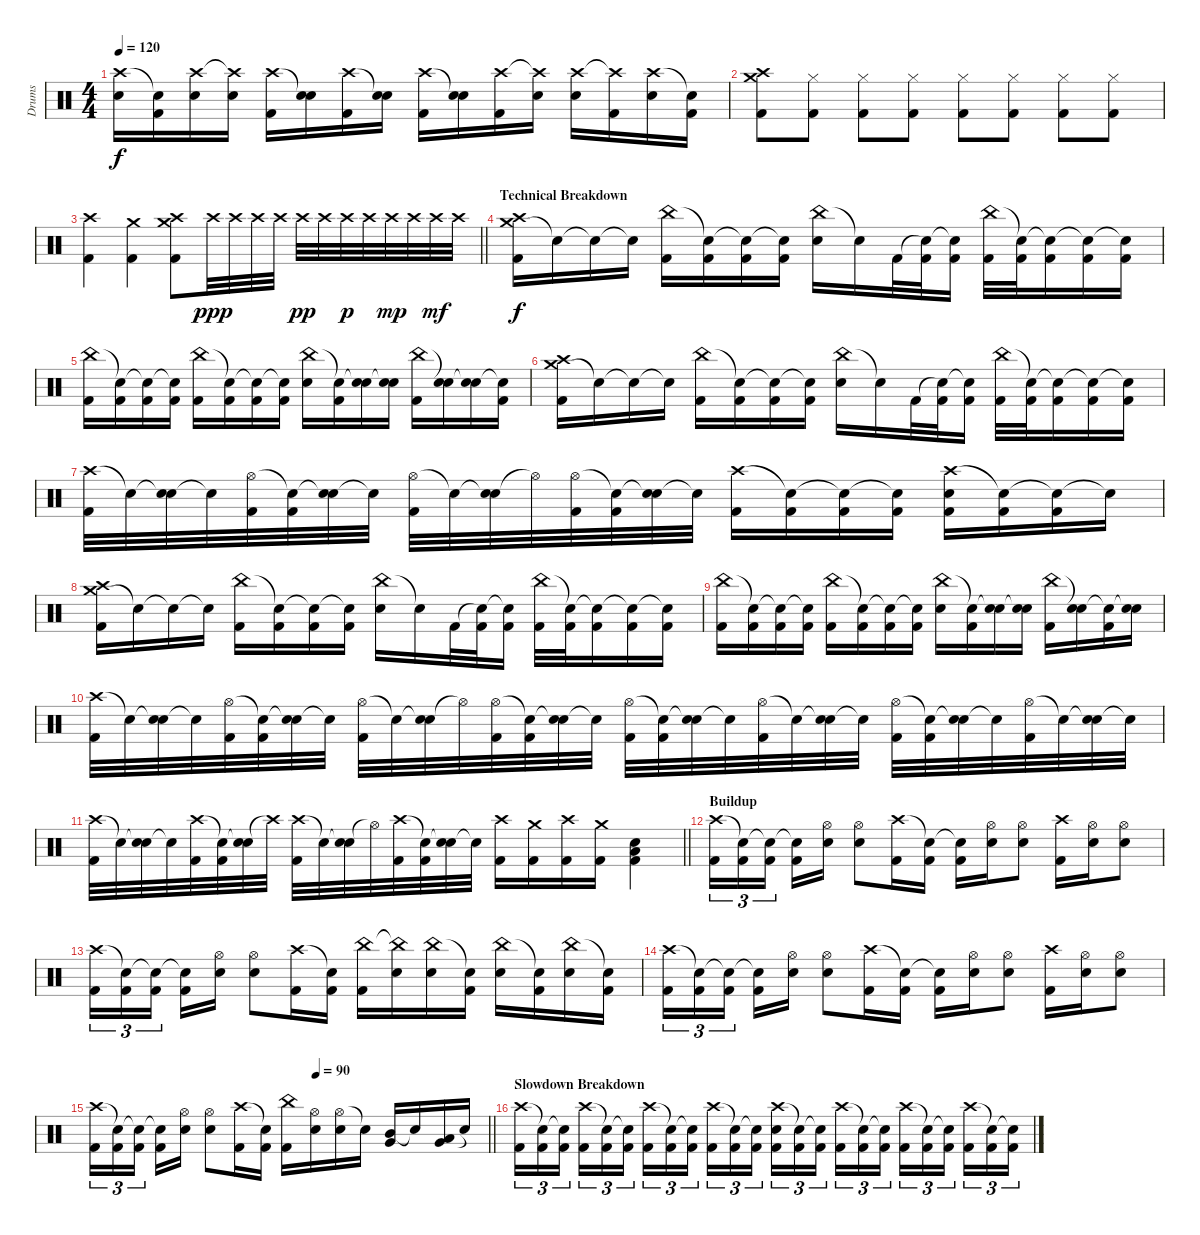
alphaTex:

\track ("Drums" "Drums") {instrument percussion}
\staff {score}
\articulation defaults
\ts (4 4)
\tempo 120
\clef neutral
\ks c
("Crash high (hit)" "Electric Snare (hit)").16{dy f} ("Snare (hit)"{t} "Kick (hit) 2").16 ("Crash high (hit)" "Electric Snare (hit)").16 ("Crash high (hit)"{t} "Electric Snare (hit)").16 ("Crash high (hit)" "Kick (hit) 2").16 ("Snare (hit)"{t} "Electric Snare (hit)").16 ("Crash high (hit)" "Kick (hit) 2").16 ("Snare (hit)"{t} "Electric Snare (hit)").16 ("Crash high (hit)" "Kick (hit) 2").16 ("Snare (hit)"{t} "Electric Snare (hit)").16 ("Crash high (hit)" "Kick (hit) 2").16 ("Crash high (hit)"{t} "Electric Snare (hit)").16 ("Crash high (hit)" "Electric Snare (hit)").16 ("Crash high (hit)"{t} "Kick (hit) 2").16 ("Crash high (hit)" "Electric Snare (hit)").16 ("Snare (hit)"{t} "Kick (hit) 2").16 |
("Crash medium (hit)" "Crash high (hit)" "Kick (hit) 2").8 ("Hi-Hat (closed)" "Kick (hit) 2").8 ("Hi-Hat (closed)" "Kick (hit) 2").8 ("Hi-Hat (closed)" "Kick (hit) 2").8 ("Hi-Hat (closed)" "Kick (hit) 2").8 ("Hi-Hat (closed)" "Kick (hit) 2").8 ("Hi-Hat (closed)" "Kick (hit) 2").8 ("Hi-Hat (closed)" "Kick (hit) 2").8 |
\barLineRight lightlight
("Crash high (hit)" "Kick (hit) 2").4 ("Crash medium (hit)" "Kick (hit) 2").4 ("Crash medium (hit)" "Crash high (hit)" "Kick (hit) 2").8 "Crash high (hit)".32{dy ppp} "Crash high (hit)".32 "Crash high (hit)".32 "Crash high (hit)".32 "Crash high (hit)".32{dy pp} "Crash high (hit)".32 "Crash high (hit)".32{dy p} "Crash high (hit)".32 "Crash high (hit)".32{dy mp} "Crash high (hit)".32 "Crash high (hit)".32{dy mf} "Crash high (hit)".32 |
\section ("" "Technical Breakdown")
("Crash medium (hit)" "Crash high (hit)" "Kick (hit) 2").16{dy f} "Snare (hit)"{t}.16 "Snare (hit)"{t}.16 "Snare (hit)"{t}.16 ("China (hit)" "Kick (hit) 2").16 ("Snare (hit)"{t} "Kick (hit) 2").16 ("Snare (hit)"{t} "Kick (hit) 2").16 ("Snare (hit)"{t} "Kick (hit) 2").16 ("China (hit)" "Electric Snare (hit)").16 "Snare (hit)"{t}.16 "Kick (hit) 2".32 ("Snare (hit)"{t} "Kick (hit) 2").32 ("Snare (hit)"{t} "Kick (hit) 2").16 ("China (hit)" "Kick (hit) 2").32 ("Snare (hit)"{t} "Kick (hit) 2").32 ("Snare (hit)"{t} "Kick (hit) 2").16 ("Snare (hit)"{t} "Kick (hit) 2").16 ("Snare (hit)"{t} "Kick (hit) 2").16 |
("China (hit)" "Kick (hit) 2").16 ("Snare (hit)"{t} "Kick (hit) 2").16 ("Snare (hit)"{t} "Kick (hit) 2").16 ("Snare (hit)"{t} "Kick (hit) 2").16 ("China (hit)" "Kick (hit) 2").16 ("Snare (hit)"{t} "Kick (hit) 2").16 ("Snare (hit)"{t} "Kick (hit) 2").16 ("Snare (hit)"{t} "Kick (hit) 2").16 ("China (hit)" "Electric Snare (hit)").16 ("Snare (hit)"{t} "Kick (hit) 2").16 ("Snare (hit)"{t} "Electric Snare (hit)").16 ("Snare (hit)"{t} "Electric Snare (hit)").16 ("China (hit)" "Kick (hit) 2").16 ("Snare (hit)"{t} "Electric Snare (hit)").16 ("Snare (hit)"{t} "Electric Snare (hit)").16 ("Snare (hit)"{t} "Kick (hit) 2").16 |
("Crash medium (hit)" "Crash high (hit)" "Kick (hit) 2").16 "Snare (hit)"{t}.16 "Snare (hit)"{t}.16 "Snare (hit)"{t}.16 ("China (hit)" "Kick (hit) 2").16 ("Snare (hit)"{t} "Kick (hit) 2").16 ("Snare (hit)"{t} "Kick (hit) 2").16 ("Snare (hit)"{t} "Kick (hit) 2").16 ("China (hit)" "Electric Snare (hit)").16 "Snare (hit)"{t}.16 "Kick (hit) 2".32 ("Snare (hit)"{t} "Kick (hit) 2").32 ("Snare (hit)"{t} "Kick (hit) 2").16 ("China (hit)" "Kick (hit) 2").32 ("Snare (hit)"{t} "Kick (hit) 2").32 ("Snare (hit)"{t} "Kick (hit) 2").16 ("Snare (hit)"{t} "Kick (hit) 2").16 ("Snare (hit)"{t} "Kick (hit) 2").16 |
("Crash high (hit)" "Kick (hit) 2").32 "Snare (hit)"{t}.32 ("Snare (hit)"{t} "Electric Snare (hit)").32 "Snare (hit)"{t}.32 ("Hi-Hat (open)" "Kick (hit) 2").32 ("Snare (hit)"{t} "Kick (hit) 2").32 ("Snare (hit)"{t} "Electric Snare (hit)").32 "Snare (hit)"{t}.32 ("Hi-Hat (open)" "Kick (hit) 2").32 "Snare (hit)"{t}.32 ("Snare (hit)"{t} "Electric Snare (hit)").32 "Hi-Hat (open)"{t}.32 ("Hi-Hat (open)" "Kick (hit) 2").32 ("Snare (hit)"{t} "Kick (hit) 2").32 ("Snare (hit)"{t} "Electric Snare (hit)").32 "Snare (hit)"{t}.32 ("Crash high (hit)" "Kick (hit) 2").16 ("Snare (hit)"{t} "Kick (hit) 2").16 ("Snare (hit)"{t} "Kick (hit) 2").16 ("Snare (hit)"{t} "Kick (hit) 2").16 ("Crash high (hit)" "Electric Snare (hit)" "Kick (hit) 2").16 ("Snare (hit)"{t} "Kick (hit) 2").16 ("Snare (hit)"{t} "Kick (hit) 2").16 "Snare (hit)"{t}.16 |
("Crash medium (hit)" "Crash high (hit)" "Kick (hit) 2").16 "Snare (hit)"{t}.16 "Snare (hit)"{t}.16 "Snare (hit)"{t}.16 ("China (hit)" "Kick (hit) 2").16 ("Snare (hit)"{t} "Kick (hit) 2").16 ("Snare (hit)"{t} "Kick (hit) 2").16 ("Snare (hit)"{t} "Kick (hit) 2").16 ("China (hit)" "Electric Snare (hit)").16 "Snare (hit)"{t}.16 "Kick (hit) 2".32 ("Snare (hit)"{t} "Kick (hit) 2").32 ("Snare (hit)"{t} "Kick (hit) 2").16 ("China (hit)" "Kick (hit) 2").32 ("Snare (hit)"{t} "Kick (hit) 2").32 ("Snare (hit)"{t} "Kick (hit) 2").16 ("Snare (hit)"{t} "Kick (hit) 2").16 ("Snare (hit)"{t} "Kick (hit) 2").16 |
("China (hit)" "Kick (hit) 2").16 ("Snare (hit)"{t} "Kick (hit) 2").16 ("Snare (hit)"{t} "Kick (hit) 2").16 ("Snare (hit)"{t} "Kick (hit) 2").16 ("China (hit)" "Kick (hit) 2").16 ("Snare (hit)"{t} "Kick (hit) 2").16 ("Snare (hit)"{t} "Kick (hit) 2").16 ("Snare (hit)"{t} "Kick (hit) 2").16 ("China (hit)" "Electric Snare (hit)").16 ("Snare (hit)"{t} "Kick (hit) 2").16 ("Snare (hit)"{t} "Electric Snare (hit)").16 ("Snare (hit)"{t} "Electric Snare (hit)").16 ("China (hit)" "Kick (hit) 2").16 ("Snare (hit)"{t} "Electric Snare (hit)").16 ("Snare (hit)"{t} "Kick (hit) 2").16 ("Snare (hit)"{t} "Electric Snare (hit)").16 |
("Crash high (hit)" "Kick (hit) 2").32 "Snare (hit)"{t}.32 ("Snare (hit)"{t} "Electric Snare (hit)").32 "Snare (hit)"{t}.32 ("Hi-Hat (open)" "Kick (hit) 2").32 ("Snare (hit)"{t} "Kick (hit) 2").32 ("Snare (hit)"{t} "Electric Snare (hit)").32 "Snare (hit)"{t}.32 ("Hi-Hat (open)" "Kick (hit) 2").32 "Snare (hit)"{t}.32 ("Snare (hit)"{t} "Electric Snare (hit)").32 "Hi-Hat (open)"{t}.32 ("Hi-Hat (open)" "Kick (hit) 2").32 ("Snare (hit)"{t} "Kick (hit) 2").32 ("Snare (hit)"{t} "Electric Snare (hit)").32 "Snare (hit)"{t}.32 ("Hi-Hat (open)" "Kick (hit) 2").32 ("Snare (hit)"{t} "Kick (hit) 2").32 ("Snare (hit)"{t} "Electric Snare (hit)").32 "Snare (hit)"{t}.32 ("Hi-Hat (open)" "Kick (hit) 2").32 "Snare (hit)"{t}.32 ("Snare (hit)"{t} "Electric Snare (hit)").32 "Snare (hit)"{t}.32 ("Hi-Hat (open)" "Kick (hit) 2").32 ("Snare (hit)"{t} "Kick (hit) 2").32 ("Snare (hit)"{t} "Electric Snare (hit)").32 "Snare (hit)"{t}.32 ("Hi-Hat (open)" "Kick (hit) 2").32 "Snare (hit)"{t}.32 ("Snare (hit)"{t} "Electric Snare (hit)").32 "Snare (hit)"{t}.32 |
\barLineRight lightlight
("Crash high (hit)" "Kick (hit) 2").32 "Snare (hit)"{t}.32 ("Snare (hit)"{t} "Electric Snare (hit)").32 "Snare (hit)"{t}.32 ("Crash high (hit)" "Kick (hit) 2").32 ("Snare (hit)"{t} "Kick (hit) 2").32 ("Snare (hit)"{t} "Electric Snare (hit)").32 "Crash high (hit)"{t}.32 ("Crash high (hit)" "Kick (hit) 2").32 "Snare (hit)"{t}.32 ("Snare (hit)"{t} "Electric Snare (hit)").32 "Hi-Hat (open)"{t}.32 ("Crash high (hit)" "Kick (hit) 2").32 ("Snare (hit)"{t} "Kick (hit) 2").32 ("Snare (hit)"{t} "Electric Snare (hit)").32 "Snare (hit)"{t}.32 ("Crash high (hit)" "Kick (hit) 2").16 ("Crash medium (hit)" "Kick (hit) 2").16 ("Crash high (hit)" "Kick (hit) 2").16 ("Crash medium (hit)" "Kick (hit) 2").16 ("Electric Snare (hit)" "Low Floor Tom (hit)" "Kick (hit) 2").4 |
\section ("" "Buildup")
("Crash high (hit)" "Kick (hit) 2").16{tu (3 2)} ("Snare (hit)"{t} "Kick (hit) 2").16{tu (3 2)} ("Snare (hit)"{t} "Kick (hit) 2").16{tu (3 2) beam splitsecondary} ("Snare (hit)"{t} "Kick (hit) 2").16 ("Hi-Hat (open)" "Electric Snare (hit)").16 ("Hi-Hat (open)" "Electric Snare (hit)").8 ("Crash high (hit)" "Kick (hit) 2").16 ("Snare (hit)"{t} "Kick (hit) 2").16 ("Snare (hit)"{t} "Kick (hit) 2").16 ("Hi-Hat (open)" "Electric Snare (hit)").16 ("Hi-Hat (open)" "Electric Snare (hit)").8 ("Crash high (hit)" "Kick (hit) 2").16 ("Hi-Hat (open)" "Electric Snare (hit)").16 ("Hi-Hat (open)" "Electric Snare (hit)").8 |
("Crash high (hit)" "Kick (hit) 2").16{tu (3 2)} ("Snare (hit)"{t} "Kick (hit) 2").16{tu (3 2)} ("Snare (hit)"{t} "Kick (hit) 2").16{tu (3 2) beam splitsecondary} ("Snare (hit)"{t} "Kick (hit) 2").16 ("Hi-Hat (open)" "Electric Snare (hit)").16 ("Hi-Hat (open)" "Electric Snare (hit)").8 ("Crash high (hit)" "Kick (hit) 2").16 ("Snare (hit)"{t} "Kick (hit) 2").16 ("China (hit)" "Kick (hit) 2").16 ("China (hit)"{t} "Electric Snare (hit)").16 ("China (hit)" "Electric Snare (hit)").16 ("Snare (hit)"{t} "Kick (hit) 2").16 ("China (hit)" "Electric Snare (hit)").16 ("Snare (hit)"{t} "Kick (hit) 2").16 ("China (hit)" "Electric Snare (hit)").16 ("Snare (hit)"{t} "Kick (hit) 2").16 |
("Crash high (hit)" "Kick (hit) 2").16{tu (3 2)} ("Snare (hit)"{t} "Kick (hit) 2").16{tu (3 2)} ("Snare (hit)"{t} "Kick (hit) 2").16{tu (3 2) beam splitsecondary} ("Snare (hit)"{t} "Kick (hit) 2").16 ("Hi-Hat (open)" "Electric Snare (hit)").16 ("Hi-Hat (open)" "Electric Snare (hit)").8 ("Crash high (hit)" "Kick (hit) 2").16 ("Snare (hit)"{t} "Kick (hit) 2").16 ("Snare (hit)"{t} "Kick (hit) 2").16 ("Hi-Hat (open)" "Electric Snare (hit)").16 ("Hi-Hat (open)" "Electric Snare (hit)").8 ("Crash high (hit)" "Kick (hit) 2").16 ("Hi-Hat (open)" "Electric Snare (hit)").16 ("Hi-Hat (open)" "Electric Snare (hit)").8 |
\tempo (90 0.5625)
\barLineRight lightlight
("Crash high (hit)" "Kick (hit) 2").16{tu (3 2)} ("Snare (hit)"{t} "Kick (hit) 2").16{tu (3 2)} ("Snare (hit)"{t} "Kick (hit) 2").16{tu (3 2) beam splitsecondary} ("Snare (hit)"{t} "Kick (hit) 2").16 ("Hi-Hat (open)" "Electric Snare (hit)").16 ("Hi-Hat (open)" "Electric Snare (hit)").8 ("Crash high (hit)" "Kick (hit) 2").16 ("Snare (hit)"{t} "Kick (hit) 2").16 ("China (hit)" "Kick (hit) 2").16 ("Hi-Hat (open)" "Electric Snare (hit)").16 ("Hi-Hat (open)" "Electric Snare (hit)").16 "Snare (hit)"{t}.16 ("Mid Tom (hit)" "Very Low Tom (hit)").16 "Snare (hit)"{t}.16 ("Very Low Tom (hit)" "Low Floor Tom (hit)").16 "Snare (hit)"{t}.16 |
\section ("" "Slowdown Breakdown")
("Crash high (hit)" "Kick (hit) 2").16{tu (3 2)} ("Snare (hit)"{t} "Kick (hit) 2").16{tu (3 2)} ("Snare (hit)"{t} "Kick (hit) 2").16{tu (3 2) beam splitsecondary} ("Crash high (hit)" "Kick (hit) 2").16{tu (3 2)} ("Snare (hit)"{t} "Kick (hit) 2").16{tu (3 2)} ("Snare (hit)"{t} "Kick (hit) 2").16{tu (3 2)} ("Crash high (hit)" "Kick (hit) 2").16{tu (3 2)} ("Snare (hit)"{t} "Kick (hit) 2").16{tu (3 2)} ("Snare (hit)"{t} "Kick (hit) 2").16{tu (3 2) beam splitsecondary} ("Crash high (hit)" "Kick (hit) 2").16{tu (3 2)} ("Snare (hit)"{t} "Kick (hit) 2").16{tu (3 2)} ("Snare (hit)"{t} "Kick (hit) 2").16{tu (3 2)} ("Crash high (hit)" "Electric Snare (hit)" "Kick (hit) 2").16{tu (3 2)} ("Snare (hit)"{t} "Kick (hit) 2").16{tu (3 2)} ("Snare (hit)"{t} "Kick (hit) 2").16{tu (3 2) beam splitsecondary} ("Crash high (hit)" "Kick (hit) 2").16{tu (3 2)} ("Snare (hit)"{t} "Kick (hit) 2").16{tu (3 2)} ("Snare (hit)"{t} "Kick (hit) 2").16{tu (3 2)} ("Crash high (hit)" "Kick (hit) 2").16{tu (3 2)} ("Snare (hit)"{t} "Kick (hit) 2").16{tu (3 2)} ("Snare (hit)"{t} "Kick (hit) 2").16{tu (3 2) beam splitsecondary} ("Crash high (hit)" "Kick (hit) 2").16{tu (3 2)} ("Snare (hit)"{t} "Kick (hit) 2").16{tu (3 2)} ("Snare (hit)"{t} "Kick (hit) 2").16{tu (3 2)}
